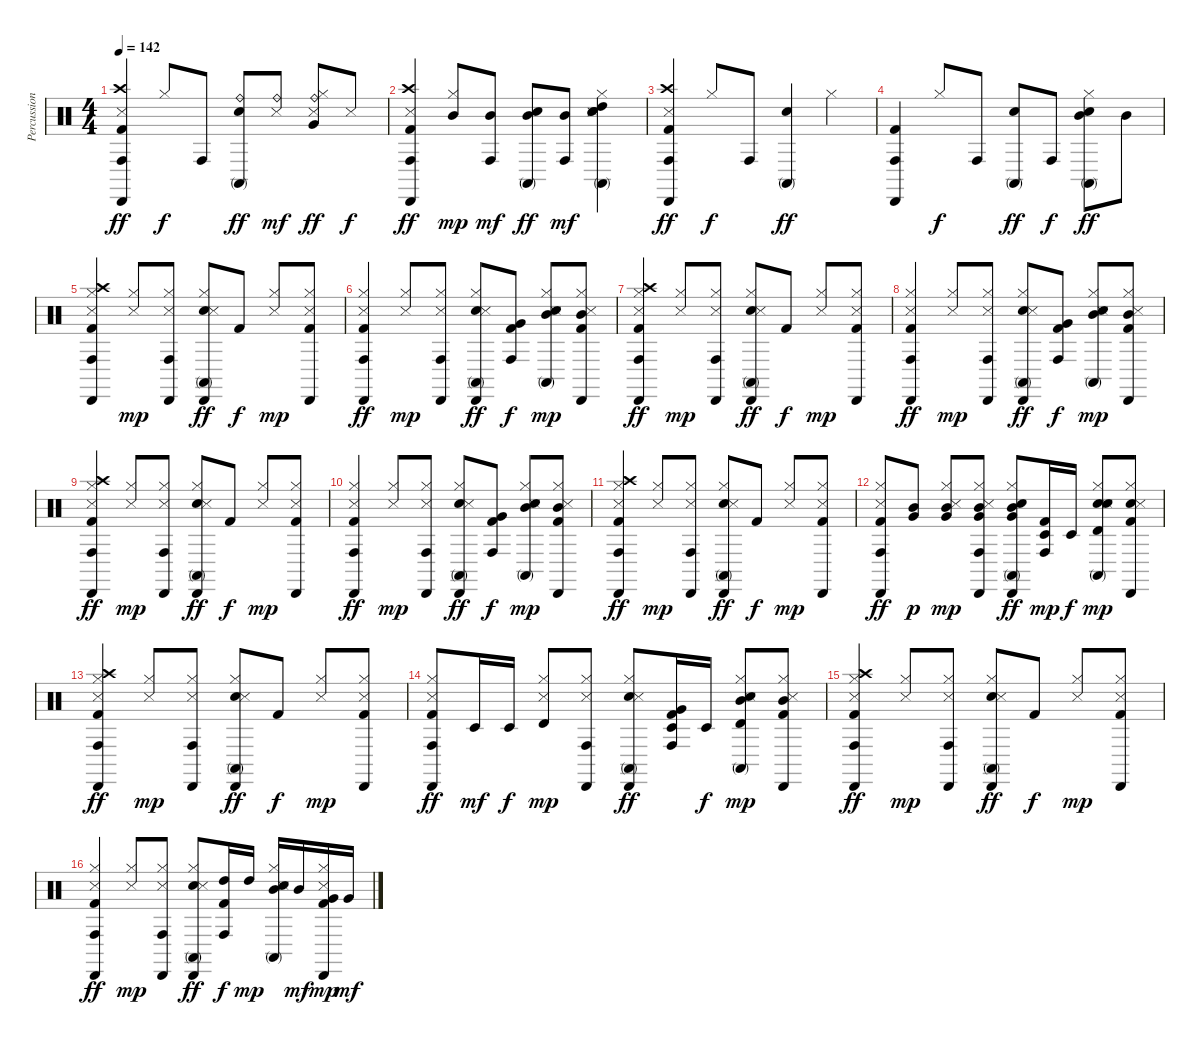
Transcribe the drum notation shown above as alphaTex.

\track ("Percussion" "Percussion") {instrument percussion}
\staff {score}
\articulation defaults
\ts (4 4)
\tempo 142
\clef neutral
\ks c
("Conga high (hit)" "Cabasa (hit)" "Crash high (hit)" "Snare (side stick) 3" "Kick (hit) 2").4{dy ff} "Hi-Hat (closed)".8{dy f} "Conga high (hit)".8 ("Conga high (mute)" "Ride (bell)" "Hand Clap (hit)").8{dy ff} ("Ride (bell)" "Snare (side stick) 3").8{dy mf} ("Very Low Tom (hit)" "Ride (bell)" "Hi-Hat (closed)" "Snare (side stick) 3").8{dy ff} "Snare (side stick) 3".8{dy f} |
("Conga high (hit)" "Cabasa (hit)" "Crash high (hit)" "Snare (side stick) 3" "Kick (hit) 2").4{dy ff} ("Mid Tom (hit)" "Hi-Hat (closed)").8{dy mp} ("Conga high (hit)" "Mid Tom (hit)").8{dy mf} ("Conga high (mute)" "Mid Tom (hit)" "Hand Clap (hit)").8{dy ff} ("Conga high (hit)" "Mid Tom (hit)").8{dy mf} ("Conga high (mute)" "High Tom (hit)" "Hi-Hat (closed)" "Hand Clap (hit)" "Snare (hit) 2" "Snare (side stick) 3").4 |
("Conga high (hit)" "Cabasa (hit)" "Crash high (hit)" "Snare (side stick) 3" "Kick (hit) 2").4{dy ff} "Hi-Hat (closed)".8{dy f} "Conga high (hit)".8 ("Conga high (mute)" "Hand Clap (hit)").4{dy ff} "Hi-Hat (closed)".4 |
("Conga high (hit)" "Cabasa (hit)" "Kick (hit) 2").4 "Hi-Hat (closed)".8{dy f} "Conga high (hit)".8 ("Conga high (mute)" "Hand Clap (hit)").8{dy ff} "Conga high (hit)".8{dy f} ("Conga high (mute)" "Mid Tom (hit)" "Hi-Hat (closed)" "Hand Clap (hit)").8{dy ff} "Mid Tom (hit)".8 |
("Conga high (hit)" "Cabasa (hit)" "Crash high (hit)" "Hi-Hat (closed)" "Snare (side stick) 3" "Kick (hit) 2").4 ("Hi-Hat (closed)" "Snare (side stick) 3").8{dy mp} ("Conga high (hit)" "Cabasa (hit)" "Hi-Hat (closed)" "Snare (side stick) 3").8 ("Conga high (mute)" "Cabasa (hit)" "Hi-Hat (closed)" "Hand Clap (hit)" "Snare (side stick) 3").8{dy ff} "Kick (hit) 2".8{dy f} ("Hi-Hat (closed)" "Snare (side stick) 3").8{dy mp} ("Cabasa (hit)" "Hi-Hat (closed)" "Snare (side stick) 3" "Kick (hit) 2").8 |
("Conga high (hit)" "Cabasa (hit)" "Hi-Hat (closed)" "Snare (side stick) 3" "Kick (hit) 2").4{dy ff} ("Hi-Hat (closed)" "Snare (side stick) 3").8{dy mp} ("Conga high (hit)" "Cabasa (hit)" "Hi-Hat (closed)" "Snare (side stick) 3").8 ("Conga high (mute)" "Cabasa (hit)" "Hi-Hat (closed)" "Hand Clap (hit)" "Snare (side stick) 3").8{dy ff} ("Conga high (hit)" "Very Low Tom (hit)" "Kick (hit) 2").8{dy f} ("Conga high (mute)" "Mid Tom (hit)" "Hi-Hat (closed)" "Hand Clap (hit)" "Snare (side stick) 3").8{dy mp} ("Cabasa (hit)" "Mid Tom (hit)" "Hi-Hat (closed)" "Snare (side stick) 3" "Kick (hit) 2").8 |
("Conga high (hit)" "Cabasa (hit)" "Crash high (hit)" "Hi-Hat (closed)" "Snare (side stick) 3" "Kick (hit) 2").4{dy ff} ("Hi-Hat (closed)" "Snare (side stick) 3").8{dy mp} ("Conga high (hit)" "Cabasa (hit)" "Hi-Hat (closed)" "Snare (side stick) 3").8 ("Conga high (mute)" "Cabasa (hit)" "Hi-Hat (closed)" "Hand Clap (hit)" "Snare (side stick) 3").8{dy ff} "Kick (hit) 2".8{dy f} ("Hi-Hat (closed)" "Snare (side stick) 3").8{dy mp} ("Cabasa (hit)" "Hi-Hat (closed)" "Snare (side stick) 3" "Kick (hit) 2").8 |
("Conga high (hit)" "Cabasa (hit)" "Hi-Hat (closed)" "Snare (side stick) 3" "Kick (hit) 2").4{dy ff} ("Hi-Hat (closed)" "Snare (side stick) 3").8{dy mp} ("Conga high (hit)" "Cabasa (hit)" "Hi-Hat (closed)" "Snare (side stick) 3").8 ("Conga high (mute)" "Cabasa (hit)" "Hi-Hat (closed)" "Hand Clap (hit)" "Snare (side stick) 3").8{dy ff} ("Conga high (hit)" "Very Low Tom (hit)" "Kick (hit) 2").8{dy f} ("Conga high (mute)" "Mid Tom (hit)" "Hi-Hat (closed)" "Hand Clap (hit)" "Snare (side stick) 3").8{dy mp} ("Cabasa (hit)" "Mid Tom (hit)" "Hi-Hat (closed)" "Snare (side stick) 3" "Kick (hit) 2").8 |
("Conga high (hit)" "Cabasa (hit)" "Crash high (hit)" "Hi-Hat (closed)" "Snare (side stick) 3" "Kick (hit) 2").4{dy ff} ("Hi-Hat (closed)" "Snare (side stick) 3").8{dy mp} ("Conga high (hit)" "Cabasa (hit)" "Hi-Hat (closed)" "Snare (side stick) 3").8 ("Conga high (mute)" "Cabasa (hit)" "Hi-Hat (closed)" "Hand Clap (hit)" "Snare (side stick) 3").8{dy ff} "Kick (hit) 2".8{dy f} ("Hi-Hat (closed)" "Snare (side stick) 3").8{dy mp} ("Cabasa (hit)" "Hi-Hat (closed)" "Snare (side stick) 3" "Kick (hit) 2").8 |
("Conga high (hit)" "Cabasa (hit)" "Hi-Hat (closed)" "Snare (side stick) 3" "Kick (hit) 2").4{dy ff} ("Hi-Hat (closed)" "Snare (side stick) 3").8{dy mp} ("Conga high (hit)" "Cabasa (hit)" "Hi-Hat (closed)" "Snare (side stick) 3").8 ("Conga high (mute)" "Cabasa (hit)" "Hi-Hat (closed)" "Hand Clap (hit)" "Snare (side stick) 3").8{dy ff} ("Conga high (hit)" "Very Low Tom (hit)" "Kick (hit) 2").8{dy f} ("Conga high (mute)" "Mid Tom (hit)" "Hi-Hat (closed)" "Hand Clap (hit)" "Snare (side stick) 3").8{dy mp} ("Cabasa (hit)" "Mid Tom (hit)" "Hi-Hat (closed)" "Snare (side stick) 3" "Kick (hit) 2").8 |
("Conga high (hit)" "Cabasa (hit)" "Crash high (hit)" "Hi-Hat (closed)" "Snare (side stick) 3" "Kick (hit) 2").4{dy ff} ("Hi-Hat (closed)" "Snare (side stick) 3").8{dy mp} ("Conga high (hit)" "Cabasa (hit)" "Hi-Hat (closed)" "Snare (side stick) 3").8 ("Conga high (mute)" "Cabasa (hit)" "Hi-Hat (closed)" "Hand Clap (hit)" "Snare (side stick) 3").8{dy ff} "Kick (hit) 2".8{dy f} ("Hi-Hat (closed)" "Snare (side stick) 3").8{dy mp} ("Cabasa (hit)" "Hi-Hat (closed)" "Snare (side stick) 3" "Kick (hit) 2").8 |
("Conga high (hit)" "Cabasa (hit)" "Hi-Hat (closed)" "Snare (side stick) 3" "Kick (hit) 2").8{dy ff} ("Very Low Tom (hit)" "Mid Tom (hit)").8{dy p} ("Very Low Tom (hit)" "Mid Tom (hit)" "Hi-Hat (closed)" "Snare (side stick) 3").8{dy mp} ("Conga high (hit)" "Cabasa (hit)" "Very Low Tom (hit)" "Mid Tom (hit)" "Hi-Hat (closed)" "Snare (side stick) 3").8 ("Conga high (mute)" "Cabasa (hit)" "Very Low Tom (hit)" "Mid Tom (hit)" "Hi-Hat (closed)" "Hand Clap (hit)").8{dy ff} ("Timbale low (hit)" "Conga high (hit)" "Kick (hit) 2").16{dy mp} "Timbale low (hit)".16{dy f} ("Timbale high (hit)" "Conga high (mute)" "Hi-Hat (closed)" "Hand Clap (hit)" "Snare (hit) 2" "Snare (side stick) 3").8{dy mp} ("Cabasa (hit)" "Hi-Hat (closed)" "Snare (hit) 2" "Snare (side stick) 3" "Kick (hit) 2").8 |
("Conga high (hit)" "Cabasa (hit)" "Crash high (hit)" "Hi-Hat (closed)" "Snare (side stick) 3" "Kick (hit) 2").4{dy ff} ("Hi-Hat (closed)" "Snare (side stick) 3").8{dy mp} ("Conga high (hit)" "Cabasa (hit)" "Hi-Hat (closed)" "Snare (side stick) 3").8 ("Conga high (mute)" "Cabasa (hit)" "Hi-Hat (closed)" "Hand Clap (hit)" "Snare (side stick) 3").8{dy ff} "Kick (hit) 2".8{dy f} ("Hi-Hat (closed)" "Snare (side stick) 3").8{dy mp} ("Cabasa (hit)" "Hi-Hat (closed)" "Snare (side stick) 3" "Kick (hit) 2").8 |
("Conga high (hit)" "Cabasa (hit)" "Hi-Hat (closed)" "Snare (side stick) 3" "Kick (hit) 2").8{dy ff} "Timbale low (hit)".16{dy mf} "Timbale low (hit)".16{dy f} ("Timbale high (hit)" "Hi-Hat (closed)" "Snare (side stick) 3").8{dy mp} ("Conga high (hit)" "Cabasa (hit)" "Hi-Hat (closed)" "Snare (side stick) 3").8 ("Conga high (mute)" "Cabasa (hit)" "Hi-Hat (closed)" "Hand Clap (hit)" "Snare (side stick) 3").8{dy ff} ("Timbale low (hit)" "Conga high (hit)" "Very Low Tom (hit)" "Kick (hit) 2").16 "Timbale low (hit)".16{dy f} ("Timbale high (hit)" "Conga high (mute)" "Mid Tom (hit)" "Hi-Hat (closed)" "Hand Clap (hit)" "Snare (side stick) 3").8{dy mp} ("Cabasa (hit)" "Mid Tom (hit)" "Hi-Hat (closed)" "Snare (side stick) 3" "Kick (hit) 2").8 |
("Conga high (hit)" "Cabasa (hit)" "Crash high (hit)" "Hi-Hat (closed)" "Snare (side stick) 3" "Kick (hit) 2").4{dy ff} ("Hi-Hat (closed)" "Snare (side stick) 3").8{dy mp} ("Conga high (hit)" "Cabasa (hit)" "Hi-Hat (closed)" "Snare (side stick) 3").8 ("Conga high (mute)" "Cabasa (hit)" "Hi-Hat (closed)" "Hand Clap (hit)" "Snare (side stick) 3").8{dy ff} "Kick (hit) 2".8{dy f} ("Hi-Hat (closed)" "Snare (side stick) 3").8{dy mp} ("Cabasa (hit)" "Hi-Hat (closed)" "Snare (side stick) 3" "Kick (hit) 2").8 |
("Conga high (hit)" "Cabasa (hit)" "Hi-Hat (closed)" "Snare (side stick) 3" "Kick (hit) 2").4{dy ff} ("Hi-Hat (closed)" "Snare (side stick) 3").8{dy mp} ("Conga high (hit)" "Cabasa (hit)" "Hi-Hat (closed)" "Snare (side stick) 3").8 ("Conga high (mute)" "Cabasa (hit)" "Hi-Hat (closed)" "Hand Clap (hit)" "Snare (side stick) 3").8{dy ff} ("Conga high (hit)" "High Tom (hit)" "Kick (hit) 2").16{dy f} "High Tom (hit)".16{dy mp} ("Conga high (mute)" "Mid Tom (hit)" "Hi-Hat (closed)" "Hand Clap (hit)" "Snare (side stick) 3").16 "Mid Tom (hit)".16{dy mf} ("Cabasa (hit)" "Very Low Tom (hit)" "Hi-Hat (closed)" "Snare (side stick) 3" "Kick (hit) 2").16{dy mp} "Very Low Tom (hit)".16{dy mf}
